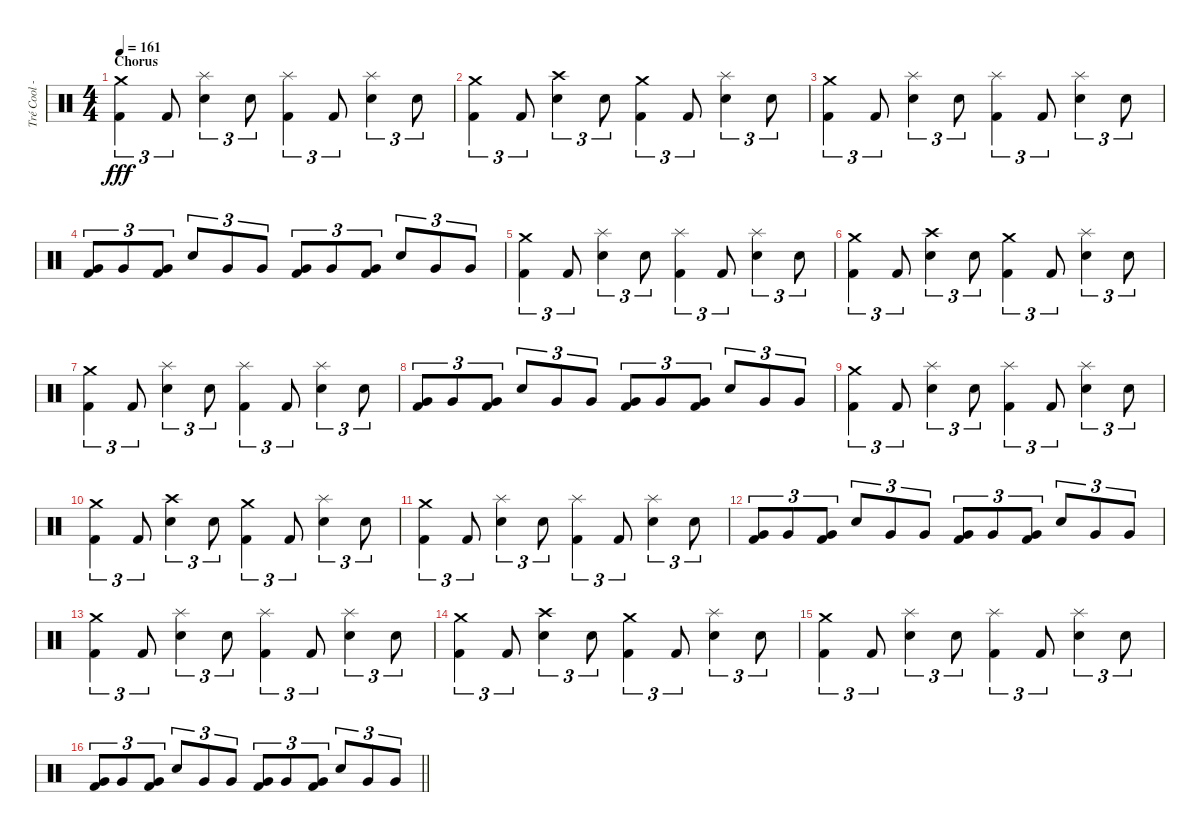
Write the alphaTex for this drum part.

\track ("Tré Cool - Drums" "Tré Cool -") {instrument percussion}
\staff {score}
\articulation defaults
\ts (4 4)
\section ("" "Chorus")
\tempo 161
\clef neutral
\ks c
("Crash medium (hit)" "Kick (hit) 2").4{tu (3 2) dy fff} "Kick (hit) 2".8{tu (3 2)} ("Splash (hit)" "Electric Snare (hit)").4{tu (3 2)} "Electric Snare (hit)".8{tu (3 2)} ("Splash (hit)" "Kick (hit) 2").4{tu (3 2)} "Kick (hit) 2".8{tu (3 2)} ("Splash (hit)" "Electric Snare (hit)").4{tu (3 2)} "Electric Snare (hit)".8{tu (3 2)} |
("Crash medium (hit)" "Kick (hit) 2").4{tu (3 2)} "Kick (hit) 2".8{tu (3 2)} ("Crash high (hit)" "Electric Snare (hit)").4{tu (3 2)} "Electric Snare (hit)".8{tu (3 2)} ("Crash medium (hit)" "Kick (hit) 2").4{tu (3 2)} "Kick (hit) 2".8{tu (3 2)} ("Splash (hit)" "Electric Snare (hit)").4{tu (3 2)} "Electric Snare (hit)".8{tu (3 2)} |
("Crash medium (hit)" "Kick (hit) 2").4{tu (3 2)} "Kick (hit) 2".8{tu (3 2)} ("Splash (hit)" "Electric Snare (hit)").4{tu (3 2)} "Electric Snare (hit)".8{tu (3 2)} ("Splash (hit)" "Kick (hit) 2").4{tu (3 2)} "Kick (hit) 2".8{tu (3 2)} ("Splash (hit)" "Electric Snare (hit)").4{tu (3 2)} "Electric Snare (hit)".8{tu (3 2)} |
("Very Low Tom (hit)" "Kick (hit) 2").8{tu (3 2)} "Very Low Tom (hit)".8{tu (3 2)} ("Very Low Tom (hit)" "Kick (hit) 2").8{tu (3 2)} "Electric Snare (hit)".8{tu (3 2)} "Very Low Tom (hit)".8{tu (3 2)} "Very Low Tom (hit)".8{tu (3 2)} ("Very Low Tom (hit)" "Kick (hit) 2").8{tu (3 2)} "Very Low Tom (hit)".8{tu (3 2)} ("Very Low Tom (hit)" "Kick (hit) 2").8{tu (3 2)} "Electric Snare (hit)".8{tu (3 2)} "Very Low Tom (hit)".8{tu (3 2)} "Very Low Tom (hit)".8{tu (3 2)} |
("Crash medium (hit)" "Kick (hit) 2").4{tu (3 2)} "Kick (hit) 2".8{tu (3 2)} ("Splash (hit)" "Electric Snare (hit)").4{tu (3 2)} "Electric Snare (hit)".8{tu (3 2)} ("Splash (hit)" "Kick (hit) 2").4{tu (3 2)} "Kick (hit) 2".8{tu (3 2)} ("Splash (hit)" "Electric Snare (hit)").4{tu (3 2)} "Electric Snare (hit)".8{tu (3 2)} |
("Crash medium (hit)" "Kick (hit) 2").4{tu (3 2)} "Kick (hit) 2".8{tu (3 2)} ("Crash high (hit)" "Electric Snare (hit)").4{tu (3 2)} "Electric Snare (hit)".8{tu (3 2)} ("Crash medium (hit)" "Kick (hit) 2").4{tu (3 2)} "Kick (hit) 2".8{tu (3 2)} ("Splash (hit)" "Electric Snare (hit)").4{tu (3 2)} "Electric Snare (hit)".8{tu (3 2)} |
("Crash medium (hit)" "Kick (hit) 2").4{tu (3 2)} "Kick (hit) 2".8{tu (3 2)} ("Splash (hit)" "Electric Snare (hit)").4{tu (3 2)} "Electric Snare (hit)".8{tu (3 2)} ("Splash (hit)" "Kick (hit) 2").4{tu (3 2)} "Kick (hit) 2".8{tu (3 2)} ("Splash (hit)" "Electric Snare (hit)").4{tu (3 2)} "Electric Snare (hit)".8{tu (3 2)} |
("Very Low Tom (hit)" "Kick (hit) 2").8{tu (3 2)} "Very Low Tom (hit)".8{tu (3 2)} ("Very Low Tom (hit)" "Kick (hit) 2").8{tu (3 2)} "Electric Snare (hit)".8{tu (3 2)} "Very Low Tom (hit)".8{tu (3 2)} "Very Low Tom (hit)".8{tu (3 2)} ("Very Low Tom (hit)" "Kick (hit) 2").8{tu (3 2)} "Very Low Tom (hit)".8{tu (3 2)} ("Very Low Tom (hit)" "Kick (hit) 2").8{tu (3 2)} "Electric Snare (hit)".8{tu (3 2)} "Very Low Tom (hit)".8{tu (3 2)} "Very Low Tom (hit)".8{tu (3 2)} |
("Crash medium (hit)" "Kick (hit) 2").4{tu (3 2)} "Kick (hit) 2".8{tu (3 2)} ("Splash (hit)" "Electric Snare (hit)").4{tu (3 2)} "Electric Snare (hit)".8{tu (3 2)} ("Splash (hit)" "Kick (hit) 2").4{tu (3 2)} "Kick (hit) 2".8{tu (3 2)} ("Splash (hit)" "Electric Snare (hit)").4{tu (3 2)} "Electric Snare (hit)".8{tu (3 2)} |
("Crash medium (hit)" "Kick (hit) 2").4{tu (3 2)} "Kick (hit) 2".8{tu (3 2)} ("Crash high (hit)" "Electric Snare (hit)").4{tu (3 2)} "Electric Snare (hit)".8{tu (3 2)} ("Crash medium (hit)" "Kick (hit) 2").4{tu (3 2)} "Kick (hit) 2".8{tu (3 2)} ("Splash (hit)" "Electric Snare (hit)").4{tu (3 2)} "Electric Snare (hit)".8{tu (3 2)} |
("Crash medium (hit)" "Kick (hit) 2").4{tu (3 2)} "Kick (hit) 2".8{tu (3 2)} ("Splash (hit)" "Electric Snare (hit)").4{tu (3 2)} "Electric Snare (hit)".8{tu (3 2)} ("Splash (hit)" "Kick (hit) 2").4{tu (3 2)} "Kick (hit) 2".8{tu (3 2)} ("Splash (hit)" "Electric Snare (hit)").4{tu (3 2)} "Electric Snare (hit)".8{tu (3 2)} |
("Very Low Tom (hit)" "Kick (hit) 2").8{tu (3 2)} "Very Low Tom (hit)".8{tu (3 2)} ("Very Low Tom (hit)" "Kick (hit) 2").8{tu (3 2)} "Electric Snare (hit)".8{tu (3 2)} "Very Low Tom (hit)".8{tu (3 2)} "Very Low Tom (hit)".8{tu (3 2)} ("Very Low Tom (hit)" "Kick (hit) 2").8{tu (3 2)} "Very Low Tom (hit)".8{tu (3 2)} ("Very Low Tom (hit)" "Kick (hit) 2").8{tu (3 2)} "Electric Snare (hit)".8{tu (3 2)} "Very Low Tom (hit)".8{tu (3 2)} "Very Low Tom (hit)".8{tu (3 2)} |
("Crash medium (hit)" "Kick (hit) 2").4{tu (3 2)} "Kick (hit) 2".8{tu (3 2)} ("Splash (hit)" "Electric Snare (hit)").4{tu (3 2)} "Electric Snare (hit)".8{tu (3 2)} ("Splash (hit)" "Kick (hit) 2").4{tu (3 2)} "Kick (hit) 2".8{tu (3 2)} ("Splash (hit)" "Electric Snare (hit)").4{tu (3 2)} "Electric Snare (hit)".8{tu (3 2)} |
("Crash medium (hit)" "Kick (hit) 2").4{tu (3 2)} "Kick (hit) 2".8{tu (3 2)} ("Crash high (hit)" "Electric Snare (hit)").4{tu (3 2)} "Electric Snare (hit)".8{tu (3 2)} ("Crash medium (hit)" "Kick (hit) 2").4{tu (3 2)} "Kick (hit) 2".8{tu (3 2)} ("Splash (hit)" "Electric Snare (hit)").4{tu (3 2)} "Electric Snare (hit)".8{tu (3 2)} |
("Crash medium (hit)" "Kick (hit) 2").4{tu (3 2)} "Kick (hit) 2".8{tu (3 2)} ("Splash (hit)" "Electric Snare (hit)").4{tu (3 2)} "Electric Snare (hit)".8{tu (3 2)} ("Splash (hit)" "Kick (hit) 2").4{tu (3 2)} "Kick (hit) 2".8{tu (3 2)} ("Splash (hit)" "Electric Snare (hit)").4{tu (3 2)} "Electric Snare (hit)".8{tu (3 2)} |
\barLineRight lightlight
("Very Low Tom (hit)" "Kick (hit) 2").8{tu (3 2)} "Very Low Tom (hit)".8{tu (3 2)} ("Very Low Tom (hit)" "Kick (hit) 2").8{tu (3 2)} "Electric Snare (hit)".8{tu (3 2)} "Very Low Tom (hit)".8{tu (3 2)} "Very Low Tom (hit)".8{tu (3 2)} ("Very Low Tom (hit)" "Kick (hit) 2").8{tu (3 2)} "Very Low Tom (hit)".8{tu (3 2)} ("Very Low Tom (hit)" "Kick (hit) 2").8{tu (3 2)} "Electric Snare (hit)".8{tu (3 2)} "Very Low Tom (hit)".8{tu (3 2)} "Very Low Tom (hit)".8{tu (3 2)}
